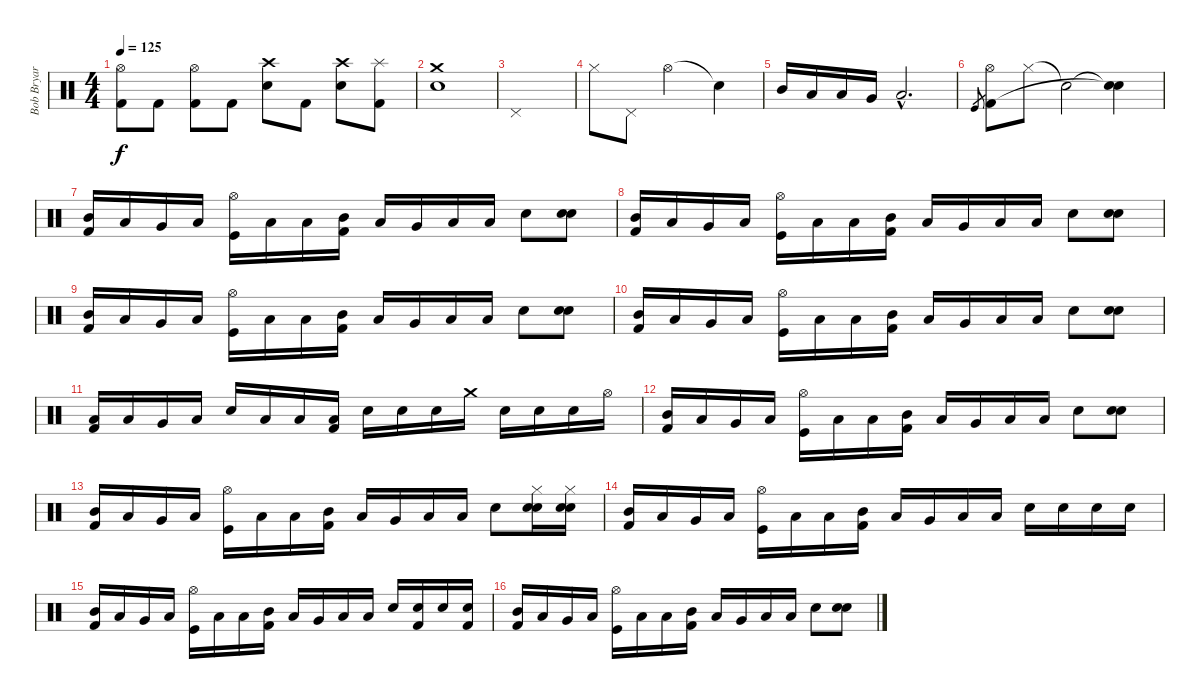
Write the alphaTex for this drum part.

\track ("Bob Bryar" "Bob Bryar") {instrument percussion}
\staff {score}
\articulation defaults
\ts (4 4)
\tempo 125
\clef neutral
\ks c
("Hi-Hat (open)" "Kick (hit) 2").8{dy f} "Kick (hit) 2".8 ("Hi-Hat (open)" "Kick (hit) 2").8 "Kick (hit) 2".8 ("Crash high (hit)" "Snare (hit) 2").8 "Kick (hit) 2".8 ("Crash high (hit)" "Snare (hit) 2").8 ("Splash (hit)" "Kick (hit) 2").8 |
("Crash medium (hit)" "Snare (hit) 2").1 |
"Pedal Hi-Hat (hit)".1 |
"Hi-Hat (closed)".8 "Pedal Hi-Hat (hit)".8 "Hi-Hat (open)".2 "Snare (hit)"{t}.4 |
"Mid Tom (hit)".16 "Low Tom (hit)".16 "Low Tom (hit)".16 "Very Low Tom (hit)".16 "Low Floor Tom (hit)"{hac}.2{d} |
"Kick (hit)".8{gr} ("Hi-Hat (open)" "Kick (hit) 2").8 "Hi-Hat (closed)".8 "Snare (hit)"{t}.2 ("Snare (hit)"{t} "Snare (hit)"{t}).4 |
("Mid Tom (hit)" "Kick (hit) 2").16 "Low Tom (hit)".16 "Very Low Tom (hit)".16 "Low Floor Tom (hit)".16 ("Kick (hit)" "Hi-Hat (open)").16 "Low Floor Tom (hit)".16 "Low Floor Tom (hit)".16 ("Mid Tom (hit)" "Kick (hit) 2").16 "Low Tom (hit)".16 "Very Low Tom (hit)".16 "Low Floor Tom (hit)".16 "Low Floor Tom (hit)".16 "Snare (hit) 2".8 ("Snare (hit) 2" "Electric Snare (hit)").8 |
("Mid Tom (hit)" "Kick (hit) 2").16 "Low Tom (hit)".16 "Very Low Tom (hit)".16 "Low Floor Tom (hit)".16 ("Kick (hit)" "Hi-Hat (open)").16 "Low Floor Tom (hit)".16 "Low Floor Tom (hit)".16 ("Mid Tom (hit)" "Kick (hit) 2").16 "Low Tom (hit)".16 "Very Low Tom (hit)".16 "Low Floor Tom (hit)".16 "Low Floor Tom (hit)".16 "Snare (hit) 2".8 ("Snare (hit) 2" "Electric Snare (hit)").8 |
("Mid Tom (hit)" "Kick (hit) 2").16 "Low Tom (hit)".16 "Very Low Tom (hit)".16 "Low Floor Tom (hit)".16 ("Kick (hit)" "Hi-Hat (open)").16 "Low Floor Tom (hit)".16 "Low Floor Tom (hit)".16 ("Mid Tom (hit)" "Kick (hit) 2").16 "Low Tom (hit)".16 "Very Low Tom (hit)".16 "Low Floor Tom (hit)".16 "Low Floor Tom (hit)".16 "Snare (hit) 2".8 ("Snare (hit) 2" "Electric Snare (hit)").8 |
("Mid Tom (hit)" "Kick (hit) 2").16 "Low Tom (hit)".16 "Very Low Tom (hit)".16 "Low Floor Tom (hit)".16 ("Kick (hit)" "Hi-Hat (open)").16 "Low Floor Tom (hit)".16 "Low Floor Tom (hit)".16 ("Mid Tom (hit)" "Kick (hit) 2").16 "Low Tom (hit)".16 "Very Low Tom (hit)".16 "Low Floor Tom (hit)".16 "Low Floor Tom (hit)".16 "Snare (hit) 2".8 ("Snare (hit) 2" "Electric Snare (hit)").8 |
("Low Tom (hit)" "Kick (hit) 2").16 "Low Tom (hit)".16 "Very Low Tom (hit)".16 "Low Floor Tom (hit)".16 "Snare (hit) 2".16 "Low Floor Tom (hit)".16 "Low Floor Tom (hit)".16 ("Low Tom (hit)" "Kick (hit) 2").16 "Snare (hit) 2".16 "Snare (hit) 2".16 "Snare (hit) 2".16 "Crash medium (hit)".16 "Snare (hit) 2".16 "Snare (hit) 2".16 "Snare (hit) 2".16 "Hi-Hat (open)".16 |
("Mid Tom (hit)" "Kick (hit) 2").16 "Low Tom (hit)".16 "Very Low Tom (hit)".16 "Low Floor Tom (hit)".16 ("Kick (hit)" "Hi-Hat (open)").16 "Low Floor Tom (hit)".16 "Low Floor Tom (hit)".16 ("Mid Tom (hit)" "Kick (hit) 2").16 "Low Tom (hit)".16 "Very Low Tom (hit)".16 "Low Floor Tom (hit)".16 "Low Floor Tom (hit)".16 "Snare (hit) 2".8 ("Snare (hit) 2" "Electric Snare (hit)").8 |
("Mid Tom (hit)" "Kick (hit) 2").16 "Low Tom (hit)".16 "Very Low Tom (hit)".16 "Low Floor Tom (hit)".16 ("Kick (hit)" "Hi-Hat (open)").16 "Low Floor Tom (hit)".16 "Low Floor Tom (hit)".16 ("Mid Tom (hit)" "Kick (hit) 2").16 "Low Tom (hit)".16 "Very Low Tom (hit)".16 "Low Floor Tom (hit)".16 "Low Floor Tom (hit)".16 "Snare (hit) 2".8 ("Hi-Hat (closed)" "Snare (hit) 2" "Electric Snare (hit)").16 ("Hi-Hat (closed)" "Snare (hit) 2" "Electric Snare (hit)").16 |
("Mid Tom (hit)" "Kick (hit) 2").16 "Low Tom (hit)".16 "Very Low Tom (hit)".16 "Low Floor Tom (hit)".16 ("Kick (hit)" "Hi-Hat (open)").16 "Low Floor Tom (hit)".16 "Low Floor Tom (hit)".16 ("Mid Tom (hit)" "Kick (hit) 2").16 "Low Tom (hit)".16 "Very Low Tom (hit)".16 "Low Floor Tom (hit)".16 "Low Floor Tom (hit)".16 "Snare (hit) 2".16 "Snare (hit) 2".16 "Snare (hit) 2".16 "Snare (hit) 2".16 |
("Mid Tom (hit)" "Kick (hit) 2").16 "Low Tom (hit)".16 "Very Low Tom (hit)".16 "Low Floor Tom (hit)".16 ("Kick (hit)" "Hi-Hat (open)").16 "Low Floor Tom (hit)".16 "Low Floor Tom (hit)".16 ("Mid Tom (hit)" "Kick (hit) 2").16 "Low Tom (hit)".16 "Very Low Tom (hit)".16 "Low Floor Tom (hit)".16 "Low Floor Tom (hit)".16 "Snare (hit) 2".16 ("Snare (hit) 2" "Kick (hit) 2").16 "Snare (hit) 2".16 ("Snare (hit) 2" "Kick (hit) 2").16 |
("Mid Tom (hit)" "Kick (hit) 2").16 "Low Tom (hit)".16 "Very Low Tom (hit)".16 "Low Floor Tom (hit)".16 ("Kick (hit)" "Hi-Hat (open)").16 "Low Floor Tom (hit)".16 "Low Floor Tom (hit)".16 ("Mid Tom (hit)" "Kick (hit) 2").16 "Low Tom (hit)".16 "Very Low Tom (hit)".16 "Low Floor Tom (hit)".16 "Low Floor Tom (hit)".16 "Snare (hit) 2".8 ("Snare (hit) 2" "Electric Snare (hit)").8
